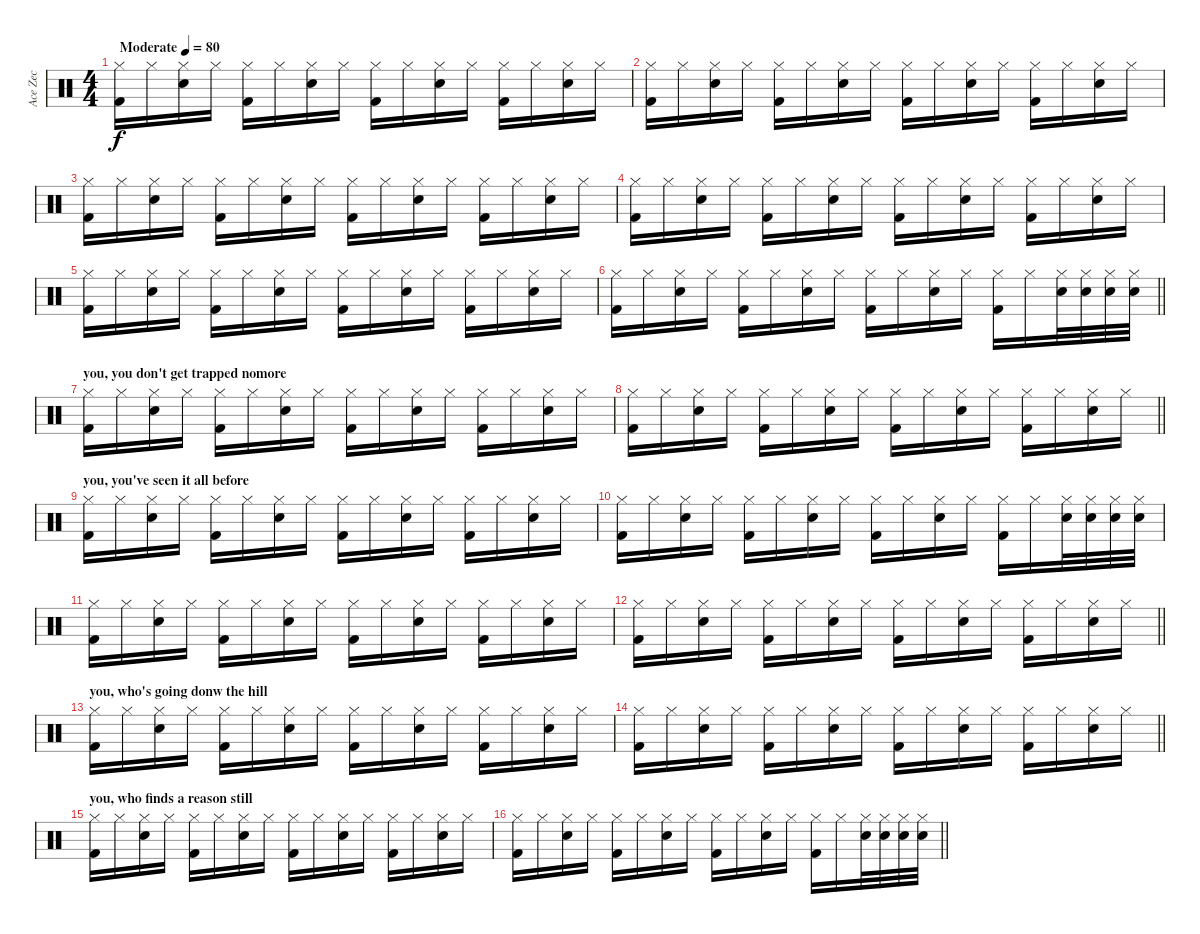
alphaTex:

\track ("Ace Zec" "Ace Zec") {instrument percussion}
\staff {score}
\articulation defaults
\ts (4 4)
\tempo (80 "Moderate")
\clef neutral
\ks c
("Hi-Hat (closed)" "Kick (hit) 2").16{dy f} "Hi-Hat (closed)".16 ("Hi-Hat (closed)" "Snare (hit) 2").16 "Hi-Hat (closed)".16 ("Hi-Hat (closed)" "Kick (hit) 2").16 "Hi-Hat (closed)".16 ("Hi-Hat (closed)" "Snare (hit) 2").16 "Hi-Hat (closed)".16 ("Hi-Hat (closed)" "Kick (hit) 2").16 "Hi-Hat (closed)".16 ("Hi-Hat (closed)" "Snare (hit) 2").16 "Hi-Hat (closed)".16 ("Hi-Hat (closed)" "Kick (hit) 2").16 "Hi-Hat (closed)".16 ("Hi-Hat (closed)" "Snare (hit) 2").16 "Hi-Hat (closed)".16 |
("Hi-Hat (closed)" "Kick (hit) 2").16 "Hi-Hat (closed)".16 ("Hi-Hat (closed)" "Snare (hit) 2").16 "Hi-Hat (closed)".16 ("Hi-Hat (closed)" "Kick (hit) 2").16 "Hi-Hat (closed)".16 ("Hi-Hat (closed)" "Snare (hit) 2").16 "Hi-Hat (closed)".16 ("Hi-Hat (closed)" "Kick (hit) 2").16 "Hi-Hat (closed)".16 ("Hi-Hat (closed)" "Snare (hit) 2").16 "Hi-Hat (closed)".16 ("Hi-Hat (closed)" "Kick (hit) 2").16 "Hi-Hat (closed)".16 ("Hi-Hat (closed)" "Snare (hit) 2").16 "Hi-Hat (closed)".16 |
("Hi-Hat (closed)" "Kick (hit) 2").16 "Hi-Hat (closed)".16 ("Hi-Hat (closed)" "Snare (hit) 2").16 "Hi-Hat (closed)".16 ("Hi-Hat (closed)" "Kick (hit) 2").16 "Hi-Hat (closed)".16 ("Hi-Hat (closed)" "Snare (hit) 2").16 "Hi-Hat (closed)".16 ("Hi-Hat (closed)" "Kick (hit) 2").16 "Hi-Hat (closed)".16 ("Hi-Hat (closed)" "Snare (hit) 2").16 "Hi-Hat (closed)".16 ("Hi-Hat (closed)" "Kick (hit) 2").16 "Hi-Hat (closed)".16 ("Hi-Hat (closed)" "Snare (hit) 2").16 "Hi-Hat (closed)".16 |
("Hi-Hat (closed)" "Kick (hit) 2").16 "Hi-Hat (closed)".16 ("Hi-Hat (closed)" "Snare (hit) 2").16 "Hi-Hat (closed)".16 ("Hi-Hat (closed)" "Kick (hit) 2").16 "Hi-Hat (closed)".16 ("Hi-Hat (closed)" "Snare (hit) 2").16 "Hi-Hat (closed)".16 ("Hi-Hat (closed)" "Kick (hit) 2").16 "Hi-Hat (closed)".16 ("Hi-Hat (closed)" "Snare (hit) 2").16 "Hi-Hat (closed)".16 ("Hi-Hat (closed)" "Kick (hit) 2").16 "Hi-Hat (closed)".16 ("Hi-Hat (closed)" "Snare (hit) 2").16 "Hi-Hat (closed)".16 |
("Hi-Hat (closed)" "Kick (hit) 2").16 "Hi-Hat (closed)".16 ("Hi-Hat (closed)" "Snare (hit) 2").16 "Hi-Hat (closed)".16 ("Hi-Hat (closed)" "Kick (hit) 2").16 "Hi-Hat (closed)".16 ("Hi-Hat (closed)" "Snare (hit) 2").16 "Hi-Hat (closed)".16 ("Hi-Hat (closed)" "Kick (hit) 2").16 "Hi-Hat (closed)".16 ("Hi-Hat (closed)" "Snare (hit) 2").16 "Hi-Hat (closed)".16 ("Hi-Hat (closed)" "Kick (hit) 2").16 "Hi-Hat (closed)".16 ("Hi-Hat (closed)" "Snare (hit) 2").16 "Hi-Hat (closed)".16 |
\barLineRight lightlight
("Hi-Hat (closed)" "Kick (hit) 2").16 "Hi-Hat (closed)".16 ("Hi-Hat (closed)" "Snare (hit) 2").16 "Hi-Hat (closed)".16 ("Hi-Hat (closed)" "Kick (hit) 2").16 "Hi-Hat (closed)".16 ("Hi-Hat (closed)" "Snare (hit) 2").16 "Hi-Hat (closed)".16 ("Hi-Hat (closed)" "Kick (hit) 2").16 "Hi-Hat (closed)".16 ("Hi-Hat (closed)" "Snare (hit) 2").16 "Hi-Hat (closed)".16 ("Hi-Hat (closed)" "Kick (hit) 2").16 "Hi-Hat (closed)".16 ("Hi-Hat (closed)" "Snare (hit) 2").32 ("Hi-Hat (closed)" "Snare (hit) 2").32 ("Hi-Hat (closed)" "Snare (hit) 2").32 ("Hi-Hat (closed)" "Snare (hit) 2").32 |
\section ("" "you, you don't get trapped nomore")
("Hi-Hat (closed)" "Kick (hit) 2").16 "Hi-Hat (closed)".16 ("Hi-Hat (closed)" "Snare (hit) 2").16 "Hi-Hat (closed)".16 ("Hi-Hat (closed)" "Kick (hit) 2").16 "Hi-Hat (closed)".16 ("Hi-Hat (closed)" "Snare (hit) 2").16 "Hi-Hat (closed)".16 ("Hi-Hat (closed)" "Kick (hit) 2").16 "Hi-Hat (closed)".16 ("Hi-Hat (closed)" "Snare (hit) 2").16 "Hi-Hat (closed)".16 ("Hi-Hat (closed)" "Kick (hit) 2").16 "Hi-Hat (closed)".16 ("Hi-Hat (closed)" "Snare (hit) 2").16 "Hi-Hat (closed)".16 |
\barLineRight lightlight
("Hi-Hat (closed)" "Kick (hit) 2").16 "Hi-Hat (closed)".16 ("Hi-Hat (closed)" "Snare (hit) 2").16 "Hi-Hat (closed)".16 ("Hi-Hat (closed)" "Kick (hit) 2").16 "Hi-Hat (closed)".16 ("Hi-Hat (closed)" "Snare (hit) 2").16 "Hi-Hat (closed)".16 ("Hi-Hat (closed)" "Kick (hit) 2").16 "Hi-Hat (closed)".16 ("Hi-Hat (closed)" "Snare (hit) 2").16 "Hi-Hat (closed)".16 ("Hi-Hat (closed)" "Kick (hit) 2").16 "Hi-Hat (closed)".16 ("Hi-Hat (closed)" "Snare (hit) 2").16 "Hi-Hat (closed)".16 |
\section ("" "you, you've seen it all before")
("Hi-Hat (closed)" "Kick (hit) 2").16 "Hi-Hat (closed)".16 ("Hi-Hat (closed)" "Snare (hit) 2").16 "Hi-Hat (closed)".16 ("Hi-Hat (closed)" "Kick (hit) 2").16 "Hi-Hat (closed)".16 ("Hi-Hat (closed)" "Snare (hit) 2").16 "Hi-Hat (closed)".16 ("Hi-Hat (closed)" "Kick (hit) 2").16 "Hi-Hat (closed)".16 ("Hi-Hat (closed)" "Snare (hit) 2").16 "Hi-Hat (closed)".16 ("Hi-Hat (closed)" "Kick (hit) 2").16 "Hi-Hat (closed)".16 ("Hi-Hat (closed)" "Snare (hit) 2").16 "Hi-Hat (closed)".16 |
("Hi-Hat (closed)" "Kick (hit) 2").16 "Hi-Hat (closed)".16 ("Hi-Hat (closed)" "Snare (hit) 2").16 "Hi-Hat (closed)".16 ("Hi-Hat (closed)" "Kick (hit) 2").16 "Hi-Hat (closed)".16 ("Hi-Hat (closed)" "Snare (hit) 2").16 "Hi-Hat (closed)".16 ("Hi-Hat (closed)" "Kick (hit) 2").16 "Hi-Hat (closed)".16 ("Hi-Hat (closed)" "Snare (hit) 2").16 "Hi-Hat (closed)".16 ("Hi-Hat (closed)" "Kick (hit) 2").16 "Hi-Hat (closed)".16 ("Hi-Hat (closed)" "Snare (hit) 2").32 ("Hi-Hat (closed)" "Snare (hit) 2").32 ("Hi-Hat (closed)" "Snare (hit) 2").32 ("Hi-Hat (closed)" "Snare (hit) 2").32 |
("Hi-Hat (closed)" "Kick (hit) 2").16 "Hi-Hat (closed)".16 ("Hi-Hat (closed)" "Snare (hit) 2").16 "Hi-Hat (closed)".16 ("Hi-Hat (closed)" "Kick (hit) 2").16 "Hi-Hat (closed)".16 ("Hi-Hat (closed)" "Snare (hit) 2").16 "Hi-Hat (closed)".16 ("Hi-Hat (closed)" "Kick (hit) 2").16 "Hi-Hat (closed)".16 ("Hi-Hat (closed)" "Snare (hit) 2").16 "Hi-Hat (closed)".16 ("Hi-Hat (closed)" "Kick (hit) 2").16 "Hi-Hat (closed)".16 ("Hi-Hat (closed)" "Snare (hit) 2").16 "Hi-Hat (closed)".16 |
\barLineRight lightlight
("Hi-Hat (closed)" "Kick (hit) 2").16 "Hi-Hat (closed)".16 ("Hi-Hat (closed)" "Snare (hit) 2").16 "Hi-Hat (closed)".16 ("Hi-Hat (closed)" "Kick (hit) 2").16 "Hi-Hat (closed)".16 ("Hi-Hat (closed)" "Snare (hit) 2").16 "Hi-Hat (closed)".16 ("Hi-Hat (closed)" "Kick (hit) 2").16 "Hi-Hat (closed)".16 ("Hi-Hat (closed)" "Snare (hit) 2").16 "Hi-Hat (closed)".16 ("Hi-Hat (closed)" "Kick (hit) 2").16 "Hi-Hat (closed)".16 ("Hi-Hat (closed)" "Snare (hit) 2").16 "Hi-Hat (closed)".16 |
\section ("" "you, who's going donw the hill")
("Hi-Hat (closed)" "Kick (hit) 2").16 "Hi-Hat (closed)".16 ("Hi-Hat (closed)" "Snare (hit) 2").16 "Hi-Hat (closed)".16 ("Hi-Hat (closed)" "Kick (hit) 2").16 "Hi-Hat (closed)".16 ("Hi-Hat (closed)" "Snare (hit) 2").16 "Hi-Hat (closed)".16 ("Hi-Hat (closed)" "Kick (hit) 2").16 "Hi-Hat (closed)".16 ("Hi-Hat (closed)" "Snare (hit) 2").16 "Hi-Hat (closed)".16 ("Hi-Hat (closed)" "Kick (hit) 2").16 "Hi-Hat (closed)".16 ("Hi-Hat (closed)" "Snare (hit) 2").16 "Hi-Hat (closed)".16 |
\barLineRight lightlight
("Hi-Hat (closed)" "Kick (hit) 2").16 "Hi-Hat (closed)".16 ("Hi-Hat (closed)" "Snare (hit) 2").16 "Hi-Hat (closed)".16 ("Hi-Hat (closed)" "Kick (hit) 2").16 "Hi-Hat (closed)".16 ("Hi-Hat (closed)" "Snare (hit) 2").16 "Hi-Hat (closed)".16 ("Hi-Hat (closed)" "Kick (hit) 2").16 "Hi-Hat (closed)".16 ("Hi-Hat (closed)" "Snare (hit) 2").16 "Hi-Hat (closed)".16 ("Hi-Hat (closed)" "Kick (hit) 2").16 "Hi-Hat (closed)".16 ("Hi-Hat (closed)" "Snare (hit) 2").16 "Hi-Hat (closed)".16 |
\section ("" "you, who finds a reason still")
("Hi-Hat (closed)" "Kick (hit) 2").16 "Hi-Hat (closed)".16 ("Hi-Hat (closed)" "Snare (hit) 2").16 "Hi-Hat (closed)".16 ("Hi-Hat (closed)" "Kick (hit) 2").16 "Hi-Hat (closed)".16 ("Hi-Hat (closed)" "Snare (hit) 2").16 "Hi-Hat (closed)".16 ("Hi-Hat (closed)" "Kick (hit) 2").16 "Hi-Hat (closed)".16 ("Hi-Hat (closed)" "Snare (hit) 2").16 "Hi-Hat (closed)".16 ("Hi-Hat (closed)" "Kick (hit) 2").16 "Hi-Hat (closed)".16 ("Hi-Hat (closed)" "Snare (hit) 2").16 "Hi-Hat (closed)".16 |
\barLineRight lightlight
("Hi-Hat (closed)" "Kick (hit) 2").16 "Hi-Hat (closed)".16 ("Hi-Hat (closed)" "Snare (hit) 2").16 "Hi-Hat (closed)".16 ("Hi-Hat (closed)" "Kick (hit) 2").16 "Hi-Hat (closed)".16 ("Hi-Hat (closed)" "Snare (hit) 2").16 "Hi-Hat (closed)".16 ("Hi-Hat (closed)" "Kick (hit) 2").16 "Hi-Hat (closed)".16 ("Hi-Hat (closed)" "Snare (hit) 2").16 "Hi-Hat (closed)".16 ("Hi-Hat (closed)" "Kick (hit) 2").16 "Hi-Hat (closed)".16 ("Hi-Hat (closed)" "Snare (hit) 2").32 ("Hi-Hat (closed)" "Snare (hit) 2").32 ("Hi-Hat (closed)" "Snare (hit) 2").32 ("Hi-Hat (closed)" "Snare (hit) 2").32
